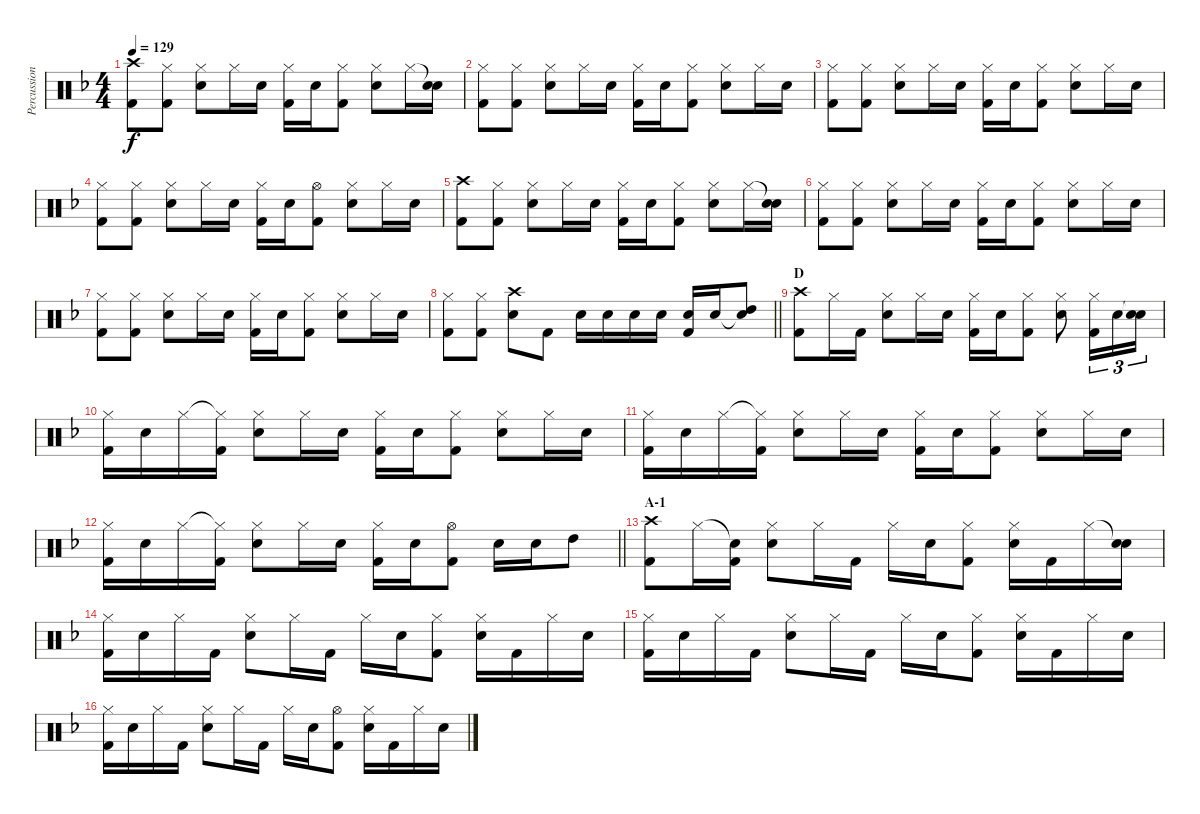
\track ("Percussion" "Percussion") {instrument percussion}
\staff {score}
\articulation defaults
\ts (4 4)
\tempo 129
\clef neutral
\ks f
("Crash high (hit)" "Kick (hit) 2").8{dy f} ("Hi-Hat (closed)" "Kick (hit) 2").8 ("Hi-Hat (closed)" "Electric Snare (hit)").8 "Hi-Hat (closed)".16 "Electric Snare (hit)".16 ("Hi-Hat (closed)" "Kick (hit) 2").16 "Electric Snare (hit)".16 ("Hi-Hat (closed)" "Kick (hit) 2").8 ("Hi-Hat (closed)" "Electric Snare (hit)").8 "Hi-Hat (closed)".16 ("Snare (hit)"{t} "Electric Snare (hit)").16 |
("Hi-Hat (closed)" "Kick (hit) 2").8 ("Hi-Hat (closed)" "Kick (hit) 2").8 ("Hi-Hat (closed)" "Electric Snare (hit)").8 "Hi-Hat (closed)".16 "Electric Snare (hit)".16 ("Hi-Hat (closed)" "Kick (hit) 2").16 "Electric Snare (hit)".16 ("Hi-Hat (closed)" "Kick (hit) 2").8 ("Hi-Hat (closed)" "Electric Snare (hit)").8 "Hi-Hat (closed)".16 "Electric Snare (hit)".16 |
("Hi-Hat (closed)" "Kick (hit) 2").8 ("Hi-Hat (closed)" "Kick (hit) 2").8 ("Hi-Hat (closed)" "Electric Snare (hit)").8 "Hi-Hat (closed)".16 "Electric Snare (hit)".16 ("Hi-Hat (closed)" "Kick (hit) 2").16 "Electric Snare (hit)".16 ("Hi-Hat (closed)" "Kick (hit) 2").8 ("Hi-Hat (closed)" "Electric Snare (hit)").8 "Hi-Hat (closed)".16 "Electric Snare (hit)".16 |
("Hi-Hat (closed)" "Kick (hit) 2").8 ("Hi-Hat (closed)" "Kick (hit) 2").8 ("Hi-Hat (closed)" "Electric Snare (hit)").8 "Hi-Hat (closed)".16 "Electric Snare (hit)".16 ("Hi-Hat (closed)" "Kick (hit) 2").16 "Electric Snare (hit)".16 ("Hi-Hat (open)" "Kick (hit) 2").8 ("Hi-Hat (closed)" "Electric Snare (hit)").8 "Hi-Hat (closed)".16 "Electric Snare (hit)".16 |
("Crash high (hit)" "Kick (hit) 2").8 ("Hi-Hat (closed)" "Kick (hit) 2").8 ("Hi-Hat (closed)" "Electric Snare (hit)").8 "Hi-Hat (closed)".16 "Electric Snare (hit)".16 ("Hi-Hat (closed)" "Kick (hit) 2").16 "Electric Snare (hit)".16 ("Hi-Hat (closed)" "Kick (hit) 2").8 ("Hi-Hat (closed)" "Electric Snare (hit)").8 "Hi-Hat (closed)".16 ("Snare (hit)"{t} "Electric Snare (hit)").16 |
("Hi-Hat (closed)" "Kick (hit) 2").8 ("Hi-Hat (closed)" "Kick (hit) 2").8 ("Hi-Hat (closed)" "Electric Snare (hit)").8 "Hi-Hat (closed)".16 "Electric Snare (hit)".16 ("Hi-Hat (closed)" "Kick (hit) 2").16 "Electric Snare (hit)".16 ("Hi-Hat (closed)" "Kick (hit) 2").8 ("Hi-Hat (closed)" "Electric Snare (hit)").8 "Hi-Hat (closed)".16 "Electric Snare (hit)".16 |
("Hi-Hat (closed)" "Kick (hit) 2").8 ("Hi-Hat (closed)" "Kick (hit) 2").8 ("Hi-Hat (closed)" "Electric Snare (hit)").8 "Hi-Hat (closed)".16 "Electric Snare (hit)".16 ("Hi-Hat (closed)" "Kick (hit) 2").16 "Electric Snare (hit)".16 ("Hi-Hat (closed)" "Kick (hit) 2").8 ("Hi-Hat (closed)" "Electric Snare (hit)").8 "Hi-Hat (closed)".16 "Electric Snare (hit)".16 |
\barLineRight lightlight
("Hi-Hat (closed)" "Kick (hit) 2").8 ("Hi-Hat (closed)" "Kick (hit) 2").8 ("Crash high (hit)" "Electric Snare (hit)").8 "Kick (hit) 2".8 "Electric Snare (hit)".16 "Electric Snare (hit)".16 "Electric Snare (hit)".16 "Electric Snare (hit)".16 ("Electric Snare (hit)" "Kick (hit) 2").16 "Electric Snare (hit)".16 ("Snare (hit)"{t} "High Tom (hit)").8 |
\section ("" "D")
("Crash high (hit)" "Kick (hit) 2").8 "Hi-Hat (closed)".16 "Kick (hit) 2".16 ("Hi-Hat (closed)" "Electric Snare (hit)").8 "Hi-Hat (closed)".16 "Electric Snare (hit)".16 ("Hi-Hat (closed)" "Kick (hit) 2").16 "Electric Snare (hit)".16 ("Hi-Hat (closed)" "Kick (hit) 2").8 ("Hi-Hat (closed)" "Electric Snare (hit)").8 ("Hi-Hat (closed)" "Kick (hit) 2").16{tu (3 2)} "Electric Snare (hit)".16{tu (3 2)} ("Snare (hit)"{t} "Electric Snare (hit)").16{tu (3 2)} |
("Hi-Hat (closed)" "Kick (hit) 2").16 "Electric Snare (hit)".16 "Hi-Hat (closed)".16 ("Hi-Hat (closed)"{t} "Kick (hit) 2").16 ("Hi-Hat (closed)" "Electric Snare (hit)").8 "Hi-Hat (closed)".16 "Electric Snare (hit)".16 ("Hi-Hat (closed)" "Kick (hit) 2").16 "Electric Snare (hit)".16 ("Hi-Hat (closed)" "Kick (hit) 2").8 ("Hi-Hat (closed)" "Electric Snare (hit)").8 "Hi-Hat (closed)".16 "Electric Snare (hit)".16 |
("Hi-Hat (closed)" "Kick (hit) 2").16 "Electric Snare (hit)".16 "Hi-Hat (closed)".16 ("Hi-Hat (closed)"{t} "Kick (hit) 2").16 ("Hi-Hat (closed)" "Electric Snare (hit)").8 "Hi-Hat (closed)".16 "Electric Snare (hit)".16 ("Hi-Hat (closed)" "Kick (hit) 2").16 "Electric Snare (hit)".16 ("Hi-Hat (closed)" "Kick (hit) 2").8 ("Hi-Hat (closed)" "Electric Snare (hit)").8 "Hi-Hat (closed)".16 "Electric Snare (hit)".16 |
\barLineRight lightlight
("Hi-Hat (closed)" "Kick (hit) 2").16 "Electric Snare (hit)".16 "Hi-Hat (closed)".16 ("Hi-Hat (closed)"{t} "Kick (hit) 2").16 ("Hi-Hat (closed)" "Electric Snare (hit)").8 "Hi-Hat (closed)".16 "Electric Snare (hit)".16 ("Hi-Hat (closed)" "Kick (hit) 2").16 "Electric Snare (hit)".16 ("Hi-Hat (open)" "Kick (hit) 2").8 "Electric Snare (hit)".16 "Electric Snare (hit)".16 "High Tom (hit)".8 |
\section ("" "A-1")
("Crash high (hit)" "Kick (hit) 2").8 "Hi-Hat (closed)".16 ("Snare (hit)"{t} "Kick (hit) 2").16 ("Hi-Hat (closed)" "Electric Snare (hit)").8 "Hi-Hat (closed)".16 "Kick (hit) 2".16 "Hi-Hat (closed)".16 "Electric Snare (hit)".16 ("Hi-Hat (closed)" "Kick (hit) 2").8 ("Hi-Hat (closed)" "Electric Snare (hit)").16 "Kick (hit) 2".16 "Hi-Hat (closed)".16 ("Snare (hit)"{t} "Electric Snare (hit)").16 |
("Hi-Hat (closed)" "Kick (hit) 2").16 "Electric Snare (hit)".16 "Hi-Hat (closed)".16 "Kick (hit) 2".16 ("Hi-Hat (closed)" "Electric Snare (hit)").8 "Hi-Hat (closed)".16 "Kick (hit) 2".16 "Hi-Hat (closed)".16 "Electric Snare (hit)".16 ("Hi-Hat (closed)" "Kick (hit) 2").8 ("Hi-Hat (closed)" "Electric Snare (hit)").16 "Kick (hit) 2".16 "Hi-Hat (closed)".16 "Electric Snare (hit)".16 |
("Hi-Hat (closed)" "Kick (hit) 2").16 "Electric Snare (hit)".16 "Hi-Hat (closed)".16 "Kick (hit) 2".16 ("Hi-Hat (closed)" "Electric Snare (hit)").8 "Hi-Hat (closed)".16 "Kick (hit) 2".16 "Hi-Hat (closed)".16 "Electric Snare (hit)".16 ("Hi-Hat (closed)" "Kick (hit) 2").8 ("Hi-Hat (closed)" "Electric Snare (hit)").16 "Kick (hit) 2".16 "Hi-Hat (closed)".16 "Electric Snare (hit)".16 |
("Hi-Hat (closed)" "Kick (hit) 2").16 "Electric Snare (hit)".16 "Hi-Hat (closed)".16 "Kick (hit) 2".16 ("Hi-Hat (closed)" "Electric Snare (hit)").8 "Hi-Hat (closed)".16 "Kick (hit) 2".16 "Hi-Hat (closed)".16 "Electric Snare (hit)".16 ("Hi-Hat (open)" "Kick (hit) 2").8 ("Hi-Hat (closed)" "Electric Snare (hit)").16 "Kick (hit) 2".16 "Hi-Hat (closed)".16 "Electric Snare (hit)".16
